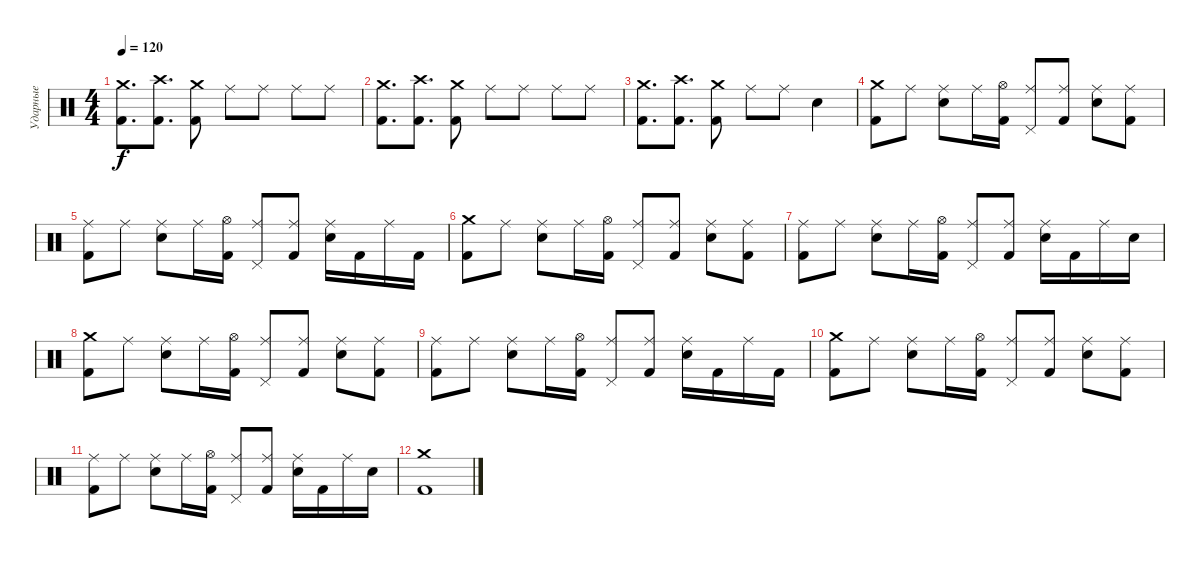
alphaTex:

\track ("Ударные" "Ударные") {instrument percussion}
\staff {score}
\articulation defaults
\ts (4 4)
\tempo 120
\clef neutral
\ks c
("Kick (hit) 2" "Crash medium (hit)").8{d dy f} ("Kick (hit) 2" "Crash high (hit)").8{d} ("Kick (hit) 2" "Crash medium (hit)").8 "Ride (middle)".8 "Ride (middle)".8 "Ride (middle)".8 "Ride (middle)".8 |
("Kick (hit) 2" "Crash medium (hit)").8{d} ("Kick (hit) 2" "Crash high (hit)").8{d} ("Kick (hit) 2" "Crash medium (hit)").8 "Ride (middle)".8 "Ride (middle)".8 "Ride (middle)".8 "Ride (middle)".8 |
("Kick (hit) 2" "Crash medium (hit)").8{d} ("Kick (hit) 2" "Crash high (hit)").8{d} ("Kick (hit) 2" "Crash medium (hit)").8 "Ride (middle)".8 "Ride (middle)".8 "Electric Snare (hit)".4 |
("Crash medium (hit)" "Kick (hit) 2").8 "Ride (middle)".8 ("Ride (middle)" "Electric Snare (hit)").8 "Ride (middle)".16 ("Kick (hit) 2" "Hi-Hat (open)").16 ("Ride (middle)" "Pedal Hi-Hat (hit)").8 ("Ride (middle)" "Kick (hit) 2").8 ("Ride (middle)" "Electric Snare (hit)").8 ("Ride (middle)" "Kick (hit) 2").8 |
("Ride (middle)" "Kick (hit) 2").8 "Ride (middle)".8 ("Ride (middle)" "Electric Snare (hit)").8 "Ride (middle)".16 ("Kick (hit) 2" "Hi-Hat (open)").16 ("Ride (middle)" "Pedal Hi-Hat (hit)").8 ("Ride (middle)" "Kick (hit) 2").8 ("Ride (middle)" "Electric Snare (hit)").16 "Kick (hit) 2".16 "Ride (middle)".16 "Kick (hit) 2".16 |
("Crash medium (hit)" "Kick (hit) 2").8 "Ride (middle)".8 ("Ride (middle)" "Electric Snare (hit)").8 "Ride (middle)".16 ("Kick (hit) 2" "Hi-Hat (open)").16 ("Ride (middle)" "Pedal Hi-Hat (hit)").8 ("Ride (middle)" "Kick (hit) 2").8 ("Ride (middle)" "Electric Snare (hit)").8 ("Ride (middle)" "Kick (hit) 2").8 |
("Ride (middle)" "Kick (hit) 2").8 "Ride (middle)".8 ("Ride (middle)" "Electric Snare (hit)").8 "Ride (middle)".16 ("Kick (hit) 2" "Hi-Hat (open)").16 ("Pedal Hi-Hat (hit)" "Ride (middle)").8 ("Ride (middle)" "Kick (hit) 2").8 ("Ride (middle)" "Electric Snare (hit)").16 "Kick (hit) 2".16 "Ride (middle)".16 "Electric Snare (hit)".16 |
("Crash medium (hit)" "Kick (hit) 2").8 "Ride (middle)".8 ("Ride (middle)" "Electric Snare (hit)").8 "Ride (middle)".16 ("Kick (hit) 2" "Hi-Hat (open)").16 ("Ride (middle)" "Pedal Hi-Hat (hit)").8 ("Ride (middle)" "Kick (hit) 2").8 ("Ride (middle)" "Electric Snare (hit)").8 ("Ride (middle)" "Kick (hit) 2").8 |
("Ride (middle)" "Kick (hit) 2").8 "Ride (middle)".8 ("Ride (middle)" "Electric Snare (hit)").8 "Ride (middle)".16 ("Kick (hit) 2" "Hi-Hat (open)").16 ("Ride (middle)" "Pedal Hi-Hat (hit)").8 ("Ride (middle)" "Kick (hit) 2").8 ("Ride (middle)" "Electric Snare (hit)").16 "Kick (hit) 2".16 "Ride (middle)".16 "Kick (hit) 2".16 |
("Crash medium (hit)" "Kick (hit) 2").8 "Ride (middle)".8 ("Ride (middle)" "Electric Snare (hit)").8 "Ride (middle)".16 ("Kick (hit) 2" "Hi-Hat (open)").16 ("Ride (middle)" "Pedal Hi-Hat (hit)").8 ("Ride (middle)" "Kick (hit) 2").8 ("Ride (middle)" "Electric Snare (hit)").8 ("Ride (middle)" "Kick (hit) 2").8 |
("Ride (middle)" "Kick (hit) 2").8 "Ride (middle)".8 ("Ride (middle)" "Electric Snare (hit)").8 "Ride (middle)".16 ("Kick (hit) 2" "Hi-Hat (open)").16 ("Pedal Hi-Hat (hit)" "Ride (middle)").8 ("Ride (middle)" "Kick (hit) 2").8 ("Ride (middle)" "Electric Snare (hit)").16 "Kick (hit) 2".16 "Ride (middle)".16 "Electric Snare (hit)".16 |
("Kick (hit) 2" "Crash medium (hit)").1
